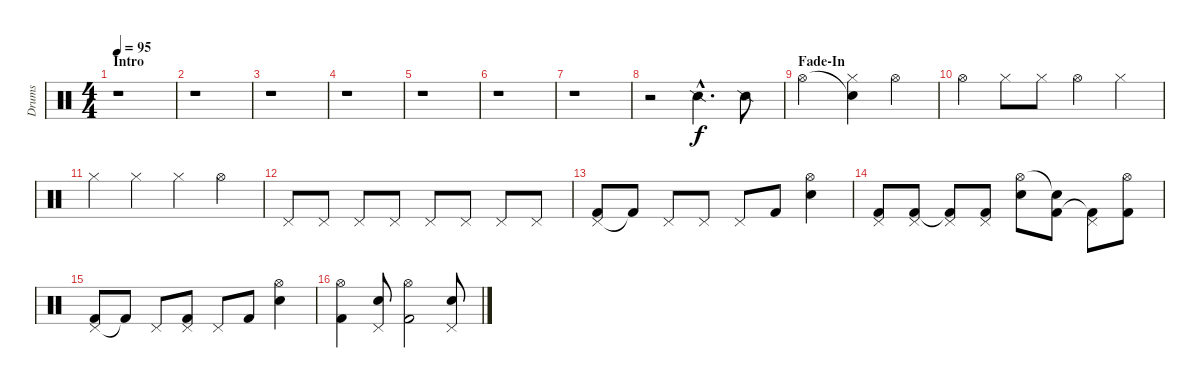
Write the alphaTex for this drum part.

\track ("Drums" "Drums") {instrument percussion}
\staff {score}
\articulation defaults
\ts (4 4)
\section ("" "Intro")
\tempo 95
\clef neutral
\ks c
r.1{dy f} |
r.1 |
r.1 |
r.1 |
r.1 |
r.1 |
r.1 |
r.2 "Snare (side stick) 2"{hac}.4{d} "Snare (side stick) 2".8 |
\section ("" "Fade-In")
"Hi-Hat (open)".2 ("Snare (hit)"{t} "Hi-Hat (closed)").4 "Hi-Hat (open)".4 |
"Hi-Hat (open)".4 "Hi-Hat (closed)".8 "Hi-Hat (closed)".8 "Hi-Hat (open)".4 "Hi-Hat (closed)".4 |
"Hi-Hat (closed)".4 "Hi-Hat (closed)".4 "Hi-Hat (closed)".4 "Hi-Hat (open)".4 |
"Pedal Hi-Hat (hit)".8 "Pedal Hi-Hat (hit)".8 "Pedal Hi-Hat (hit)".8 "Pedal Hi-Hat (hit)".8 "Pedal Hi-Hat (hit)".8 "Pedal Hi-Hat (hit)".8 "Pedal Hi-Hat (hit)".8 "Pedal Hi-Hat (hit)".8 |
("Pedal Hi-Hat (hit)" "Kick (hit) 2").8 "Kick (hit) 2"{t}.8 "Pedal Hi-Hat (hit)".8 "Pedal Hi-Hat (hit)".8 "Pedal Hi-Hat (hit)".8 "Kick (hit) 2".8 ("Hi-Hat (open)" "Snare (hit) 2").4 |
("Pedal Hi-Hat (hit)" "Kick (hit) 2").8 ("Pedal Hi-Hat (hit)" "Kick (hit) 2").8 ("Pedal Hi-Hat (hit)" "Kick (hit) 2"{t}).8 ("Pedal Hi-Hat (hit)" "Kick (hit) 2").8 ("Hi-Hat (open)" "Snare (hit) 2").8 ("Snare (hit)"{t} "Kick (hit) 2").8 ("Pedal Hi-Hat (hit)" "Kick (hit) 2"{t}).8 ("Hi-Hat (open)" "Kick (hit) 2").8 |
("Pedal Hi-Hat (hit)" "Kick (hit) 2").8 "Kick (hit) 2"{t}.8 "Pedal Hi-Hat (hit)".8 ("Pedal Hi-Hat (hit)" "Kick (hit) 2").8 "Pedal Hi-Hat (hit)".8 "Kick (hit) 2".8 ("Hi-Hat (open)" "Snare (hit) 2").4 |
("Hi-Hat (open)" "Kick (hit) 2").4 ("Pedal Hi-Hat (hit)" "Snare (hit) 2").8 ("Hi-Hat (open)" "Kick (hit) 2").2 ("Pedal Hi-Hat (hit)" "Snare (hit) 2").8
